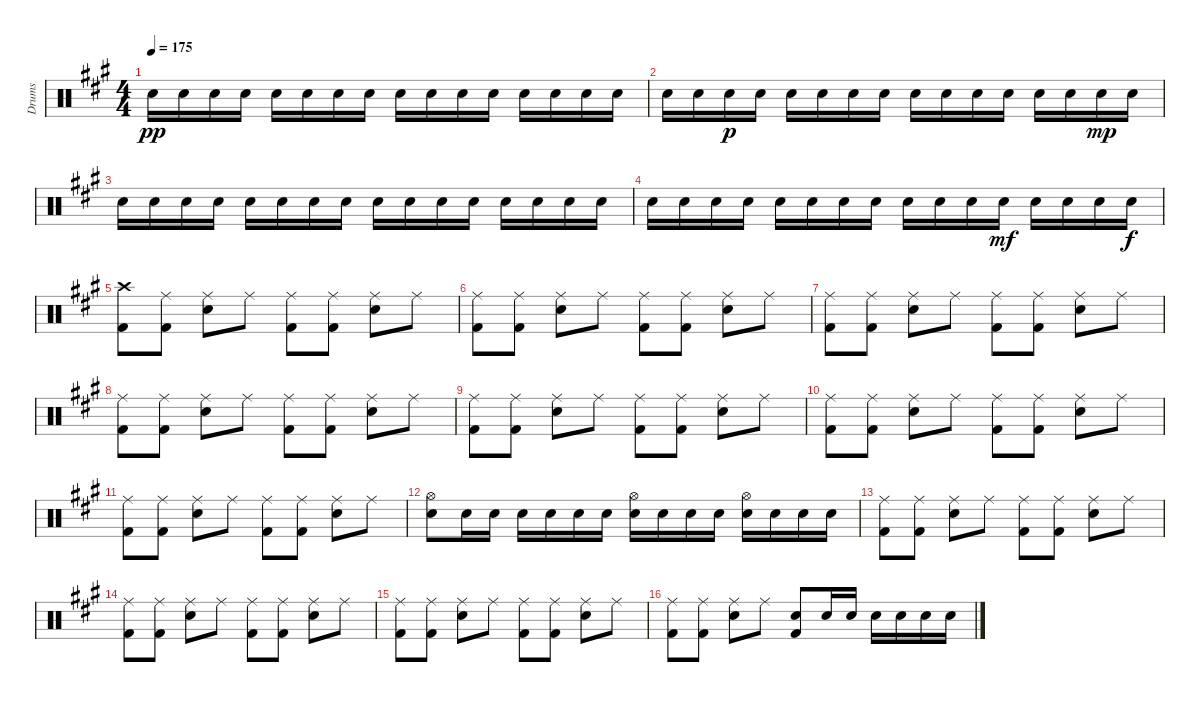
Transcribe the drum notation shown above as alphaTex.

\track ("Drums" "Drums") {instrument percussion}
\staff {score}
\articulation defaults
\ts (4 4)
\tempo 175
\clef neutral
\ks f#minor "Snare (hit) 2".16{dy pp} "Snare (hit) 2".16 "Snare (hit) 2".16 "Snare (hit) 2".16 "Snare (hit) 2".16 "Snare (hit) 2".16 "Snare (hit) 2".16 "Snare (hit) 2".16 "Snare (hit) 2".16 "Snare (hit) 2".16 "Snare (hit) 2".16 "Snare (hit) 2".16 "Snare (hit) 2".16 "Snare (hit) 2".16 "Snare (hit) 2".16 "Snare (hit) 2".16
|
"Snare (hit) 2".16 "Snare (hit) 2".16 "Snare (hit) 2".16{dy p} "Snare (hit) 2".16 "Snare (hit) 2".16 "Snare (hit) 2".16 "Snare (hit) 2".16 "Snare (hit) 2".16 "Snare (hit) 2".16 "Snare (hit) 2".16 "Snare (hit) 2".16 "Snare (hit) 2".16 "Snare (hit) 2".16 "Snare (hit) 2".16 "Snare (hit) 2".16{dy mp} "Snare (hit) 2".16 |
"Snare (hit) 2".16 "Snare (hit) 2".16 "Snare (hit) 2".16 "Snare (hit) 2".16 "Snare (hit) 2".16 "Snare (hit) 2".16 "Snare (hit) 2".16 "Snare (hit) 2".16 "Snare (hit) 2".16 "Snare (hit) 2".16 "Snare (hit) 2".16 "Snare (hit) 2".16 "Snare (hit) 2".16 "Snare (hit) 2".16 "Snare (hit) 2".16 "Snare (hit) 2".16 |
"Snare (hit) 2".16 "Snare (hit) 2".16 "Snare (hit) 2".16 "Snare (hit) 2".16 "Snare (hit) 2".16 "Snare (hit) 2".16 "Snare (hit) 2".16 "Snare (hit) 2".16 "Snare (hit) 2".16 "Snare (hit) 2".16 "Snare (hit) 2".16 "Snare (hit) 2".16{dy mf} "Snare (hit) 2".16 "Snare (hit) 2".16 "Snare (hit) 2".16 "Snare (hit) 2".16{dy f} |
("Crash high (hit)" "Kick (hit) 2").8 ("Ride (middle)" "Kick (hit) 2").8 ("Ride (middle)" "Snare (hit) 2").8 "Ride (middle)".8 ("Ride (middle)" "Kick (hit) 2").8 ("Ride (middle)" "Kick (hit) 2").8 ("Ride (middle)" "Snare (hit) 2").8 "Ride (middle)".8 |
("Ride (middle)" "Kick (hit) 2").8 ("Ride (middle)" "Kick (hit) 2").8 ("Ride (middle)" "Snare (hit) 2").8 "Ride (middle)".8 ("Ride (middle)" "Kick (hit) 2").8 ("Ride (middle)" "Kick (hit) 2").8 ("Ride (middle)" "Snare (hit) 2").8 "Ride (middle)".8 |
("Ride (middle)" "Kick (hit) 2").8 ("Ride (middle)" "Kick (hit) 2").8 ("Ride (middle)" "Snare (hit) 2").8 "Ride (middle)".8 ("Ride (middle)" "Kick (hit) 2").8 ("Ride (middle)" "Kick (hit) 2").8 ("Ride (middle)" "Snare (hit) 2").8 "Ride (middle)".8 |
("Ride (middle)" "Kick (hit) 2").8 ("Ride (middle)" "Kick (hit) 2").8 ("Ride (middle)" "Snare (hit) 2").8 "Ride (middle)".8 ("Ride (middle)" "Kick (hit) 2").8 ("Ride (middle)" "Kick (hit) 2").8 ("Ride (middle)" "Snare (hit) 2").8 "Ride (middle)".8 |
("Ride (middle)" "Kick (hit) 2").8 ("Ride (middle)" "Kick (hit) 2").8 ("Ride (middle)" "Snare (hit) 2").8 "Ride (middle)".8 ("Ride (middle)" "Kick (hit) 2").8 ("Ride (middle)" "Kick (hit) 2").8 ("Ride (middle)" "Snare (hit) 2").8 "Ride (middle)".8 |
("Ride (middle)" "Kick (hit) 2").8 ("Ride (middle)" "Kick (hit) 2").8 ("Ride (middle)" "Snare (hit) 2").8 "Ride (middle)".8 ("Ride (middle)" "Kick (hit) 2").8 ("Ride (middle)" "Kick (hit) 2").8 ("Ride (middle)" "Snare (hit) 2").8 "Ride (middle)".8 |
("Ride (middle)" "Kick (hit) 2").8 ("Ride (middle)" "Kick (hit) 2").8 ("Ride (middle)" "Snare (hit) 2").8 "Ride (middle)".8 ("Ride (middle)" "Kick (hit) 2").8 ("Ride (middle)" "Kick (hit) 2").8 ("Ride (middle)" "Snare (hit) 2").8 "Ride (middle)".8 |
("Hi-Hat (open)" "Snare (hit) 2").8 "Snare (hit) 2".16 "Snare (hit) 2".16 "Snare (hit) 2".16 "Snare (hit) 2".16 "Snare (hit) 2".16 "Snare (hit) 2".16 ("Hi-Hat (open)" "Snare (hit) 2").16 "Snare (hit) 2".16 "Snare (hit) 2".16 "Snare (hit) 2".16 ("Hi-Hat (open)" "Snare (hit) 2").16 "Snare (hit) 2".16 "Snare (hit) 2".16 "Snare (hit) 2".16 |
("Ride (middle)" "Kick (hit) 2").8 ("Ride (middle)" "Kick (hit) 2").8 ("Ride (middle)" "Snare (hit) 2").8 "Ride (middle)".8 ("Ride (middle)" "Kick (hit) 2").8 ("Ride (middle)" "Kick (hit) 2").8 ("Ride (middle)" "Snare (hit) 2").8 "Ride (middle)".8 |
("Ride (middle)" "Kick (hit) 2").8 ("Ride (middle)" "Kick (hit) 2").8 ("Ride (middle)" "Snare (hit) 2").8 "Ride (middle)".8 ("Ride (middle)" "Kick (hit) 2").8 ("Ride (middle)" "Kick (hit) 2").8 ("Ride (middle)" "Snare (hit) 2").8 "Ride (middle)".8 |
("Ride (middle)" "Kick (hit) 2").8 ("Ride (middle)" "Kick (hit) 2").8 ("Ride (middle)" "Snare (hit) 2").8 "Ride (middle)".8 ("Ride (middle)" "Kick (hit) 2").8 ("Ride (middle)" "Kick (hit) 2").8 ("Ride (middle)" "Snare (hit) 2").8 "Ride (middle)".8 |
("Ride (middle)" "Kick (hit) 2").8 ("Ride (middle)" "Kick (hit) 2").8 ("Ride (middle)" "Snare (hit) 2").8 "Ride (middle)".8 ("Kick (hit) 2" "Snare (hit) 2").8 "Snare (hit) 2".16 "Snare (hit) 2".16 "Snare (hit) 2".16 "Snare (hit) 2".16 "Snare (hit) 2".16 "Snare (hit) 2".16
